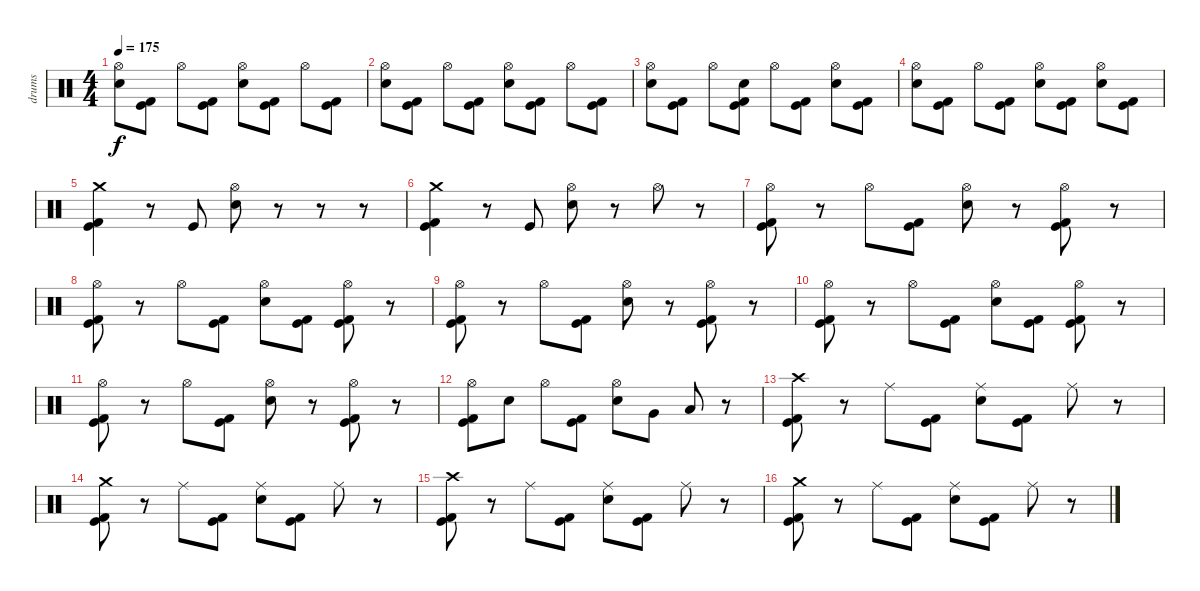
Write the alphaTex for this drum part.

\track ("drums" "drums") {instrument percussion}
\staff {score}
\articulation defaults
\ts (4 4)
\tempo 175
\clef neutral
\ks c
("Electric Snare (hit)" "Hi-Hat (open)").8{dy f} ("Kick (hit)" "Kick (hit) 2").8 "Hi-Hat (open)".8 ("Kick (hit)" "Kick (hit) 2").8 ("Electric Snare (hit)" "Hi-Hat (open)").8 ("Kick (hit)" "Kick (hit) 2").8 "Hi-Hat (open)".8 ("Kick (hit)" "Kick (hit) 2").8 |
("Electric Snare (hit)" "Hi-Hat (open)").8 ("Kick (hit)" "Kick (hit) 2").8 "Hi-Hat (open)".8 ("Kick (hit)" "Kick (hit) 2").8 ("Electric Snare (hit)" "Hi-Hat (open)").8 ("Kick (hit)" "Kick (hit) 2").8 "Hi-Hat (open)".8 ("Kick (hit)" "Kick (hit) 2").8 |
("Electric Snare (hit)" "Hi-Hat (open)").8 ("Kick (hit)" "Kick (hit) 2").8 "Hi-Hat (open)".8 ("Kick (hit)" "Kick (hit) 2" "Electric Snare (hit)").8 "Hi-Hat (open)".8 ("Kick (hit)" "Kick (hit) 2").8 ("Electric Snare (hit)" "Hi-Hat (open)").8 ("Kick (hit)" "Kick (hit) 2").8 |
("Electric Snare (hit)" "Hi-Hat (open)").8 ("Kick (hit)" "Kick (hit) 2").8 "Hi-Hat (open)".8 ("Kick (hit)" "Kick (hit) 2").8 ("Electric Snare (hit)" "Hi-Hat (open)").8 ("Kick (hit)" "Kick (hit) 2").8 ("Electric Snare (hit)" "Hi-Hat (open)").8 ("Kick (hit)" "Kick (hit) 2").8 |
("Kick (hit)" "Kick (hit) 2" "Crash medium (hit)").4 r.8 "Kick (hit)".8 ("Electric Snare (hit)" "Hi-Hat (open)").8 r.8 r.8 r.8 |
("Kick (hit)" "Kick (hit) 2" "Crash medium (hit)").4 r.8 "Kick (hit)".8 ("Electric Snare (hit)" "Hi-Hat (open)").8 r.8 "Hi-Hat (open)".8 r.8 |
("Kick (hit)" "Kick (hit) 2" "Hi-Hat (open)").8 r.8 "Hi-Hat (open)".8 ("Kick (hit)" "Kick (hit) 2").8 ("Electric Snare (hit)" "Hi-Hat (open)").8 r.8 ("Kick (hit)" "Kick (hit) 2" "Hi-Hat (open)").8 r.8 |
("Kick (hit)" "Kick (hit) 2" "Hi-Hat (open)").8 r.8 "Hi-Hat (open)".8 ("Kick (hit)" "Kick (hit) 2").8 ("Electric Snare (hit)" "Hi-Hat (open)").8 ("Kick (hit)" "Kick (hit) 2").8 ("Kick (hit)" "Kick (hit) 2" "Hi-Hat (open)").8 r.8 |
("Kick (hit)" "Kick (hit) 2" "Hi-Hat (open)").8 r.8 "Hi-Hat (open)".8 ("Kick (hit)" "Kick (hit) 2").8 ("Electric Snare (hit)" "Hi-Hat (open)").8 r.8 ("Kick (hit)" "Kick (hit) 2" "Hi-Hat (open)").8 r.8 |
("Kick (hit)" "Kick (hit) 2" "Hi-Hat (open)").8 r.8 "Hi-Hat (open)".8 ("Kick (hit)" "Kick (hit) 2").8 ("Electric Snare (hit)" "Hi-Hat (open)").8 ("Kick (hit)" "Kick (hit) 2").8 ("Kick (hit)" "Kick (hit) 2" "Hi-Hat (open)").8 r.8 |
("Kick (hit)" "Kick (hit) 2" "Hi-Hat (open)").8 r.8 "Hi-Hat (open)".8 ("Kick (hit)" "Kick (hit) 2").8 ("Electric Snare (hit)" "Hi-Hat (open)").8 r.8 ("Kick (hit)" "Kick (hit) 2" "Hi-Hat (open)").8 r.8 |
("Kick (hit)" "Kick (hit) 2" "Hi-Hat (open)").8 "Electric Snare (hit)".8 "Hi-Hat (open)".8 ("Kick (hit)" "Kick (hit) 2").8 ("Electric Snare (hit)" "Hi-Hat (open)").8 "Very Low Tom (hit)".8 "Low Floor Tom (hit)".8 r.8 |
("Kick (hit)" "Kick (hit) 2" "Crash high (hit)").8 r.8 "Ride (middle)".8 ("Kick (hit)" "Kick (hit) 2").8 ("Electric Snare (hit)" "Ride (middle)").8 ("Kick (hit)" "Kick (hit) 2").8 "Ride (middle)".8 r.8 |
("Kick (hit)" "Kick (hit) 2" "Crash medium (hit)").8 r.8 "Ride (middle)".8 ("Kick (hit)" "Kick (hit) 2").8 ("Electric Snare (hit)" "Ride (middle)").8 ("Kick (hit)" "Kick (hit) 2").8 "Ride (middle)".8 r.8 |
("Kick (hit)" "Kick (hit) 2" "Crash high (hit)").8 r.8 "Ride (middle)".8 ("Kick (hit)" "Kick (hit) 2").8 ("Electric Snare (hit)" "Ride (middle)").8 ("Kick (hit)" "Kick (hit) 2").8 "Ride (middle)".8 r.8 |
("Kick (hit)" "Kick (hit) 2" "Crash medium (hit)").8 r.8 "Ride (middle)".8 ("Kick (hit)" "Kick (hit) 2").8 ("Electric Snare (hit)" "Ride (middle)").8 ("Kick (hit)" "Kick (hit) 2").8 "Ride (middle)".8 r.8
